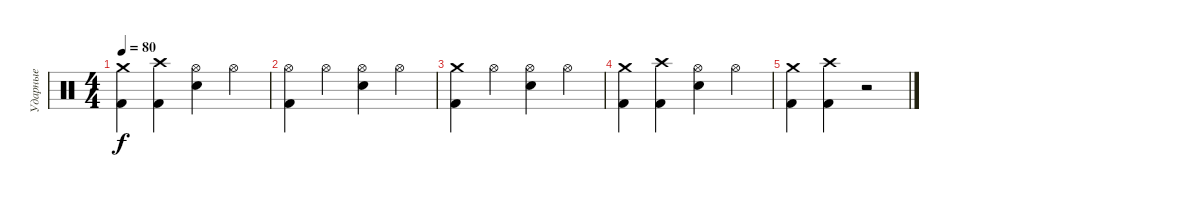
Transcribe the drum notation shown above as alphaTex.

\track ("Ударные" "Ударные") {instrument percussion}
\staff {score}
\articulation defaults
\ts (4 4)
\tempo 80
\clef neutral
\ks c
("Crash medium (hit)" "Kick (hit) 2").4{dy f} ("Crash high (hit)" "Kick (hit) 2").4 ("Hi-Hat (open)" "Electric Snare (hit)").4 "Hi-Hat (open)".4 |
("Hi-Hat (open)" "Kick (hit) 2").4 "Hi-Hat (open)".4 ("Hi-Hat (open)" "Electric Snare (hit)").4 "Hi-Hat (open)".4 |
("Crash medium (hit)" "Kick (hit) 2").4 "Hi-Hat (open)".4 ("Hi-Hat (open)" "Electric Snare (hit)").4 "Hi-Hat (open)".4 |
("Crash medium (hit)" "Kick (hit) 2").4 ("Crash high (hit)" "Kick (hit) 2").4 ("Hi-Hat (open)" "Electric Snare (hit)").4 "Hi-Hat (open)".4 |
("Crash medium (hit)" "Kick (hit) 2").4 ("Crash high (hit)" "Kick (hit) 2").4 r.2
